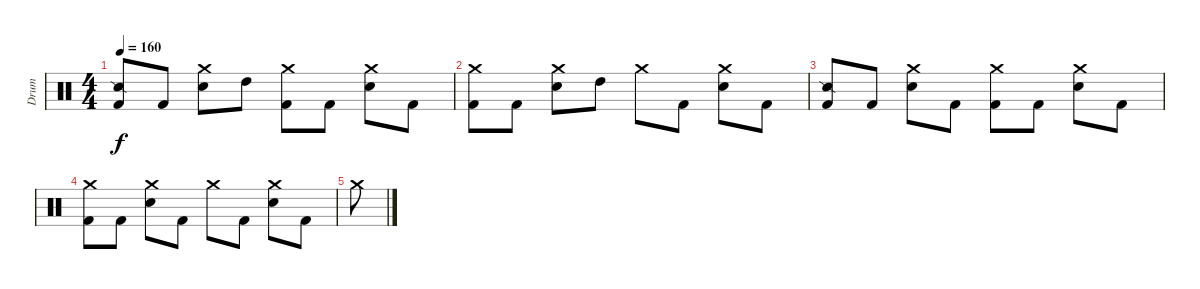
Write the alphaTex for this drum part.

\track ("Drum" "Drum") {instrument percussion}
\staff {score}
\articulation defaults
\ts (4 4)
\tempo 160
\clef neutral
\ks c
("Kick (hit) 2" "Snare (side stick) 2").8{dy f} "Kick (hit) 2".8 ("Crash medium (hit)" "Electric Snare (hit)").8 "High Tom (hit)".8 ("Crash medium (hit)" "Kick (hit) 2").8 "Kick (hit) 2".8 ("Electric Snare (hit)" "Crash medium (hit)").8 "Kick (hit) 2".8 |
("Kick (hit) 2" "Crash medium (hit)").8 "Kick (hit) 2".8 ("Crash medium (hit)" "Electric Snare (hit)").8 "High Tom (hit)".8 "Crash medium (hit)".8 "Kick (hit) 2".8 ("Crash medium (hit)" "Electric Snare (hit)").8 "Kick (hit) 2".8 |
("Kick (hit) 2" "Snare (side stick) 2").8 "Kick (hit) 2".8 ("Electric Snare (hit)" "Crash medium (hit)").8 "Kick (hit) 2".8 ("Crash medium (hit)" "Kick (hit) 2").8 "Kick (hit) 2".8 ("Crash medium (hit)" "Electric Snare (hit)").8 "Kick (hit) 2".8 |
("Crash medium (hit)" "Kick (hit) 2").8 "Kick (hit) 2".8 ("Electric Snare (hit)" "Crash medium (hit)").8 "Kick (hit) 2".8 "Crash medium (hit)".8 "Kick (hit) 2".8 ("Electric Snare (hit)" "Crash medium (hit)").8 "Kick (hit) 2".8 |
"Crash medium (hit)".8
